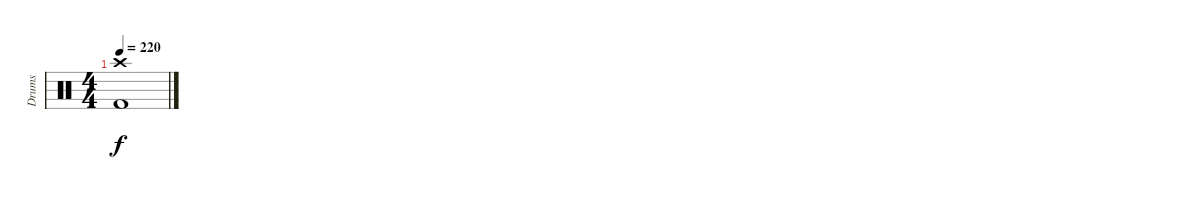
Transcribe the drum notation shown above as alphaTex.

\track ("Drums" "Drums") {instrument percussion}
\staff {score}
\articulation defaults
\ts (4 4)
\tempo 220
\clef neutral
\ks c
("Crash high (hit)" "Kick (hit) 2").1{dy f}
